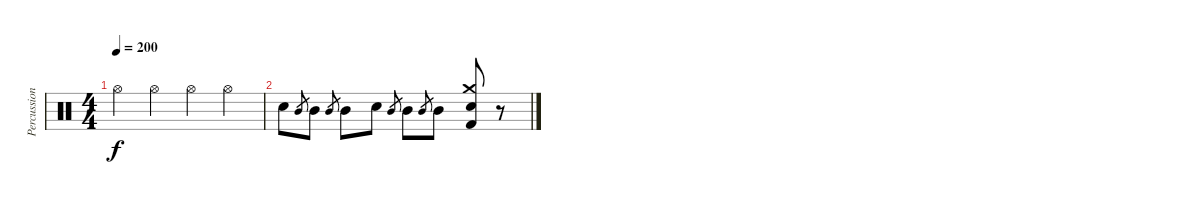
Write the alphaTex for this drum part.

\track ("Percussions ( Brylle )" "Percussion") {instrument percussion}
\staff {score}
\articulation defaults
\ts (4 4)
\tempo 200
\clef neutral
\ks c "Hi-Hat (open)".4{dy f} "Hi-Hat (open)".4 "Hi-Hat (open)".4 "Hi-Hat (open)".4
|
"Electric Snare (hit)".8 "Mid Tom (hit)".8{gr} "Mid Tom (hit)".8 "Mid Tom (hit)".8{gr} "Mid Tom (hit)".8 "Electric Snare (hit)".8 "Mid Tom (hit)".8{gr} "Mid Tom (hit)".8 "Mid Tom (hit)".8{gr} "Mid Tom (hit)".8 ("Crash medium (hit)" "Electric Snare (hit)" "Kick (hit) 2").8 r.8
